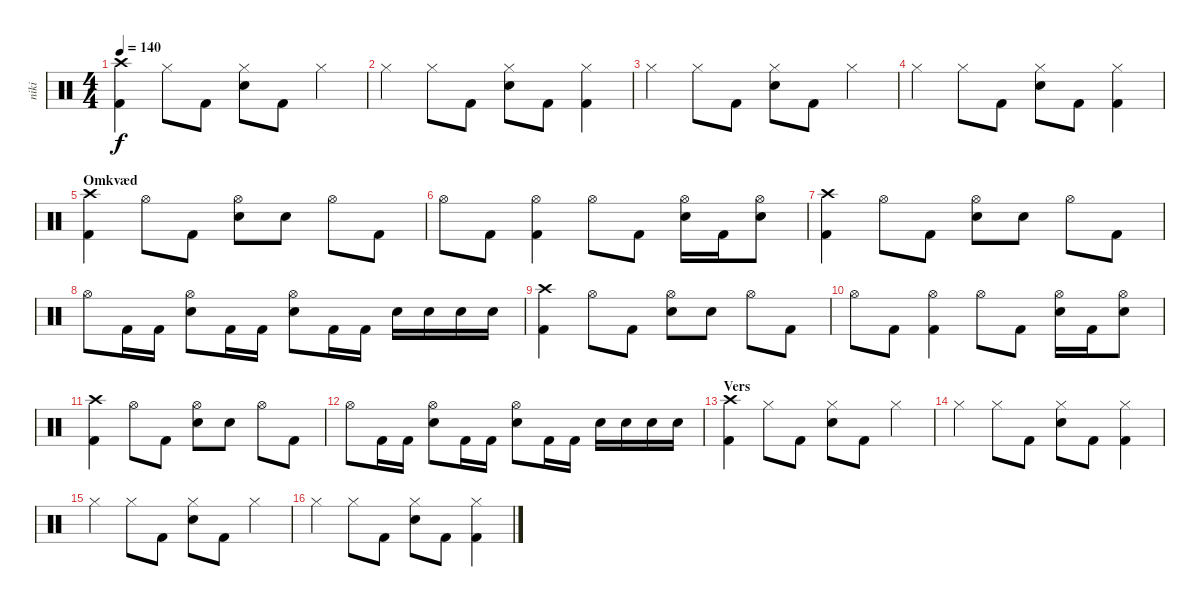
\track ("niki" "niki") {instrument percussion}
\staff {score}
\articulation defaults
\ts (4 4)
\tempo 140
\clef neutral
\ks c
("Crash high (hit)" "Kick (hit) 2").4{dy f} "Hi-Hat (closed)".8 "Kick (hit) 2".8 ("Hi-Hat (closed)" "Snare (hit) 2").8 "Kick (hit) 2".8 "Hi-Hat (closed)".4 |
"Hi-Hat (closed)".4 "Hi-Hat (closed)".8 "Kick (hit) 2".8 ("Hi-Hat (closed)" "Snare (hit) 2").8 "Kick (hit) 2".8 ("Hi-Hat (closed)" "Kick (hit) 2").4 |
"Hi-Hat (closed)".4 "Hi-Hat (closed)".8 "Kick (hit) 2".8 ("Hi-Hat (closed)" "Snare (hit) 2").8 "Kick (hit) 2".8 "Hi-Hat (closed)".4 |
"Hi-Hat (closed)".4 "Hi-Hat (closed)".8 "Kick (hit) 2".8 ("Hi-Hat (closed)" "Snare (hit) 2").8 "Kick (hit) 2".8 ("Hi-Hat (closed)" "Kick (hit) 2").4 |
\section ("" "Omkvæd")
("Crash high (hit)" "Kick (hit) 2").4 "Hi-Hat (open)".8 "Kick (hit) 2".8 ("Hi-Hat (open)" "Snare (hit) 2").8 "Snare (hit) 2".8 "Hi-Hat (open)".8 "Kick (hit) 2".8 |
"Hi-Hat (open)".8 "Kick (hit) 2".8 ("Hi-Hat (open)" "Kick (hit) 2").4 "Hi-Hat (open)".8 "Kick (hit) 2".8 ("Hi-Hat (open)" "Snare (hit) 2").16 "Kick (hit) 2".16 ("Hi-Hat (open)" "Snare (hit) 2").8 |
("Crash high (hit)" "Kick (hit) 2").4 "Hi-Hat (open)".8 "Kick (hit) 2".8 ("Hi-Hat (open)" "Snare (hit) 2").8 "Snare (hit) 2".8 "Hi-Hat (open)".8 "Kick (hit) 2".8 |
"Hi-Hat (open)".8 "Kick (hit) 2".16 "Kick (hit) 2".16 ("Hi-Hat (open)" "Snare (hit) 2").8 "Kick (hit) 2".16 "Kick (hit) 2".16 ("Hi-Hat (open)" "Snare (hit) 2").8 "Kick (hit) 2".16 "Kick (hit) 2".16 "Snare (hit) 2".16 "Snare (hit) 2".16 "Snare (hit) 2".16 "Snare (hit) 2".16 |
("Crash high (hit)" "Kick (hit) 2").4 "Hi-Hat (open)".8 "Kick (hit) 2".8 ("Hi-Hat (open)" "Snare (hit) 2").8 "Snare (hit) 2".8 "Hi-Hat (open)".8 "Kick (hit) 2".8 |
"Hi-Hat (open)".8 "Kick (hit) 2".8 ("Hi-Hat (open)" "Kick (hit) 2").4 "Hi-Hat (open)".8 "Kick (hit) 2".8 ("Hi-Hat (open)" "Snare (hit) 2").16 "Kick (hit) 2".16 ("Hi-Hat (open)" "Snare (hit) 2").8 |
("Crash high (hit)" "Kick (hit) 2").4 "Hi-Hat (open)".8 "Kick (hit) 2".8 ("Hi-Hat (open)" "Snare (hit) 2").8 "Snare (hit) 2".8 "Hi-Hat (open)".8 "Kick (hit) 2".8 |
"Hi-Hat (open)".8 "Kick (hit) 2".16 "Kick (hit) 2".16 ("Hi-Hat (open)" "Snare (hit) 2").8 "Kick (hit) 2".16 "Kick (hit) 2".16 ("Hi-Hat (open)" "Snare (hit) 2").8 "Kick (hit) 2".16 "Kick (hit) 2".16 "Snare (hit) 2".16 "Snare (hit) 2".16 "Snare (hit) 2".16 "Snare (hit) 2".16 |
\section ("" "Vers")
("Crash high (hit)" "Kick (hit) 2").4 "Hi-Hat (closed)".8 "Kick (hit) 2".8 ("Hi-Hat (closed)" "Snare (hit) 2").8 "Kick (hit) 2".8 "Hi-Hat (closed)".4 |
"Hi-Hat (closed)".4 "Hi-Hat (closed)".8 "Kick (hit) 2".8 ("Hi-Hat (closed)" "Snare (hit) 2").8 "Kick (hit) 2".8 ("Hi-Hat (closed)" "Kick (hit) 2").4 |
"Hi-Hat (closed)".4 "Hi-Hat (closed)".8 "Kick (hit) 2".8 ("Hi-Hat (closed)" "Snare (hit) 2").8 "Kick (hit) 2".8 "Hi-Hat (closed)".4 |
"Hi-Hat (closed)".4 "Hi-Hat (closed)".8 "Kick (hit) 2".8 ("Hi-Hat (closed)" "Snare (hit) 2").8 "Kick (hit) 2".8 ("Hi-Hat (closed)" "Kick (hit) 2").4
